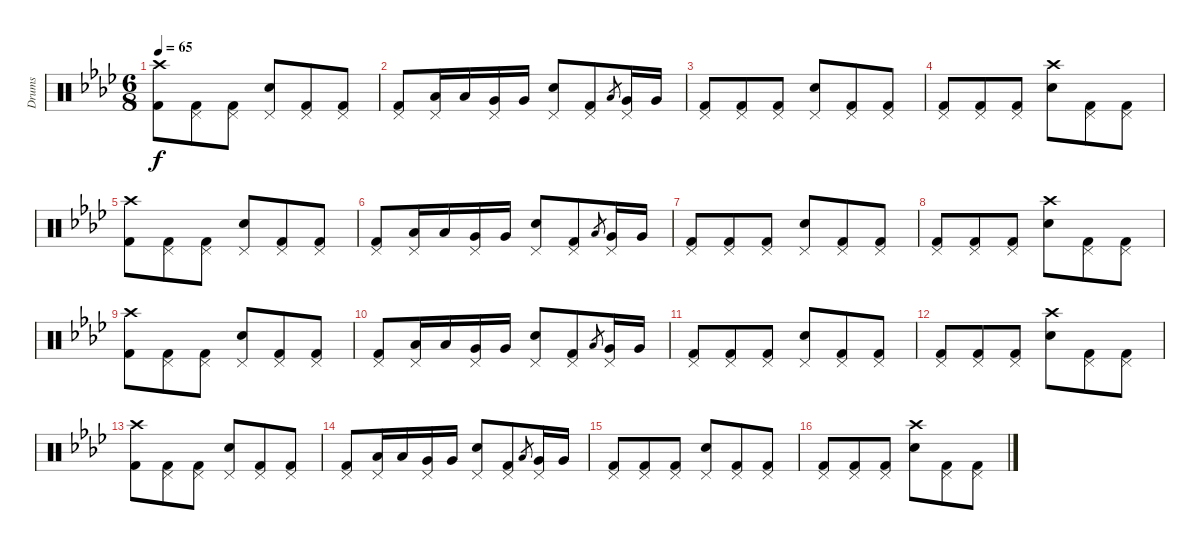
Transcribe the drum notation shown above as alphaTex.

\track ("Drums" "Drums") {instrument percussion}
\staff {score}
\articulation defaults
\ts (6 8)
\tempo 65
\clef neutral
\ks ab
("Crash high (hit)" "Kick (hit) 2").8{dy f} ("Pedal Hi-Hat (hit)" "Kick (hit) 2").8 ("Pedal Hi-Hat (hit)" "Kick (hit) 2").8 ("Pedal Hi-Hat (hit)" "Electric Snare (hit)").8 ("Pedal Hi-Hat (hit)" "Kick (hit) 2").8 ("Pedal Hi-Hat (hit)" "Kick (hit) 2").8 |
("Pedal Hi-Hat (hit)" "Kick (hit) 2").8 ("Pedal Hi-Hat (hit)" "Low Tom (hit)").16 "Low Tom (hit)".16 ("Pedal Hi-Hat (hit)" "Very Low Tom (hit)").16 "Very Low Tom (hit)".16 ("Pedal Hi-Hat (hit)" "Electric Snare (hit)").8 ("Pedal Hi-Hat (hit)" "Kick (hit) 2").8 "Low Tom (hit)".8{gr} ("Pedal Hi-Hat (hit)" "Very Low Tom (hit)").16 "Very Low Tom (hit)".16 |
("Pedal Hi-Hat (hit)" "Kick (hit) 2").8 ("Pedal Hi-Hat (hit)" "Kick (hit) 2").8 ("Pedal Hi-Hat (hit)" "Kick (hit) 2").8 ("Pedal Hi-Hat (hit)" "Electric Snare (hit)").8 ("Pedal Hi-Hat (hit)" "Kick (hit) 2").8 ("Pedal Hi-Hat (hit)" "Kick (hit) 2").8 |
("Pedal Hi-Hat (hit)" "Kick (hit) 2").8 ("Pedal Hi-Hat (hit)" "Kick (hit) 2").8 ("Pedal Hi-Hat (hit)" "Kick (hit) 2").8 ("Crash high (hit)" "Electric Snare (hit)").8 ("Pedal Hi-Hat (hit)" "Kick (hit) 2").8 ("Pedal Hi-Hat (hit)" "Kick (hit) 2").8 |
("Crash high (hit)" "Kick (hit) 2").8 ("Pedal Hi-Hat (hit)" "Kick (hit) 2").8 ("Pedal Hi-Hat (hit)" "Kick (hit) 2").8 ("Pedal Hi-Hat (hit)" "Electric Snare (hit)").8 ("Pedal Hi-Hat (hit)" "Kick (hit) 2").8 ("Pedal Hi-Hat (hit)" "Kick (hit) 2").8 |
("Pedal Hi-Hat (hit)" "Kick (hit) 2").8 ("Pedal Hi-Hat (hit)" "Low Tom (hit)").16 "Low Tom (hit)".16 ("Pedal Hi-Hat (hit)" "Very Low Tom (hit)").16 "Very Low Tom (hit)".16 ("Pedal Hi-Hat (hit)" "Electric Snare (hit)").8 ("Pedal Hi-Hat (hit)" "Kick (hit) 2").8 "Low Tom (hit)".8{gr} ("Pedal Hi-Hat (hit)" "Very Low Tom (hit)").16 "Very Low Tom (hit)".16 |
("Pedal Hi-Hat (hit)" "Kick (hit) 2").8 ("Pedal Hi-Hat (hit)" "Kick (hit) 2").8 ("Pedal Hi-Hat (hit)" "Kick (hit) 2").8 ("Pedal Hi-Hat (hit)" "Electric Snare (hit)").8 ("Pedal Hi-Hat (hit)" "Kick (hit) 2").8 ("Pedal Hi-Hat (hit)" "Kick (hit) 2").8 |
("Pedal Hi-Hat (hit)" "Kick (hit) 2").8 ("Pedal Hi-Hat (hit)" "Kick (hit) 2").8 ("Pedal Hi-Hat (hit)" "Kick (hit) 2").8 ("Crash high (hit)" "Electric Snare (hit)").8 ("Pedal Hi-Hat (hit)" "Kick (hit) 2").8 ("Pedal Hi-Hat (hit)" "Kick (hit) 2").8 |
("Crash high (hit)" "Kick (hit) 2").8 ("Pedal Hi-Hat (hit)" "Kick (hit) 2").8 ("Pedal Hi-Hat (hit)" "Kick (hit) 2").8 ("Pedal Hi-Hat (hit)" "Electric Snare (hit)").8 ("Pedal Hi-Hat (hit)" "Kick (hit) 2").8 ("Pedal Hi-Hat (hit)" "Kick (hit) 2").8 |
("Pedal Hi-Hat (hit)" "Kick (hit) 2").8 ("Pedal Hi-Hat (hit)" "Low Tom (hit)").16 "Low Tom (hit)".16 ("Pedal Hi-Hat (hit)" "Very Low Tom (hit)").16 "Very Low Tom (hit)".16 ("Pedal Hi-Hat (hit)" "Electric Snare (hit)").8 ("Pedal Hi-Hat (hit)" "Kick (hit) 2").8 "Low Tom (hit)".8{gr} ("Pedal Hi-Hat (hit)" "Very Low Tom (hit)").16 "Very Low Tom (hit)".16 |
("Pedal Hi-Hat (hit)" "Kick (hit) 2").8 ("Pedal Hi-Hat (hit)" "Kick (hit) 2").8 ("Pedal Hi-Hat (hit)" "Kick (hit) 2").8 ("Pedal Hi-Hat (hit)" "Electric Snare (hit)").8 ("Pedal Hi-Hat (hit)" "Kick (hit) 2").8 ("Pedal Hi-Hat (hit)" "Kick (hit) 2").8 |
("Pedal Hi-Hat (hit)" "Kick (hit) 2").8 ("Pedal Hi-Hat (hit)" "Kick (hit) 2").8 ("Pedal Hi-Hat (hit)" "Kick (hit) 2").8 ("Crash high (hit)" "Electric Snare (hit)").8 ("Pedal Hi-Hat (hit)" "Kick (hit) 2").8 ("Pedal Hi-Hat (hit)" "Kick (hit) 2").8 |
("Crash high (hit)" "Kick (hit) 2").8 ("Pedal Hi-Hat (hit)" "Kick (hit) 2").8 ("Pedal Hi-Hat (hit)" "Kick (hit) 2").8 ("Pedal Hi-Hat (hit)" "Electric Snare (hit)").8 ("Pedal Hi-Hat (hit)" "Kick (hit) 2").8 ("Pedal Hi-Hat (hit)" "Kick (hit) 2").8 |
("Pedal Hi-Hat (hit)" "Kick (hit) 2").8 ("Pedal Hi-Hat (hit)" "Low Tom (hit)").16 "Low Tom (hit)".16 ("Pedal Hi-Hat (hit)" "Very Low Tom (hit)").16 "Very Low Tom (hit)".16 ("Pedal Hi-Hat (hit)" "Electric Snare (hit)").8 ("Pedal Hi-Hat (hit)" "Kick (hit) 2").8 "Low Tom (hit)".8{gr} ("Pedal Hi-Hat (hit)" "Very Low Tom (hit)").16 "Very Low Tom (hit)".16 |
("Pedal Hi-Hat (hit)" "Kick (hit) 2").8 ("Pedal Hi-Hat (hit)" "Kick (hit) 2").8 ("Pedal Hi-Hat (hit)" "Kick (hit) 2").8 ("Pedal Hi-Hat (hit)" "Electric Snare (hit)").8 ("Pedal Hi-Hat (hit)" "Kick (hit) 2").8 ("Pedal Hi-Hat (hit)" "Kick (hit) 2").8 |
("Pedal Hi-Hat (hit)" "Kick (hit) 2").8 ("Pedal Hi-Hat (hit)" "Kick (hit) 2").8 ("Pedal Hi-Hat (hit)" "Kick (hit) 2").8 ("Crash high (hit)" "Electric Snare (hit)").8 ("Pedal Hi-Hat (hit)" "Kick (hit) 2").8 ("Pedal Hi-Hat (hit)" "Kick (hit) 2").8
